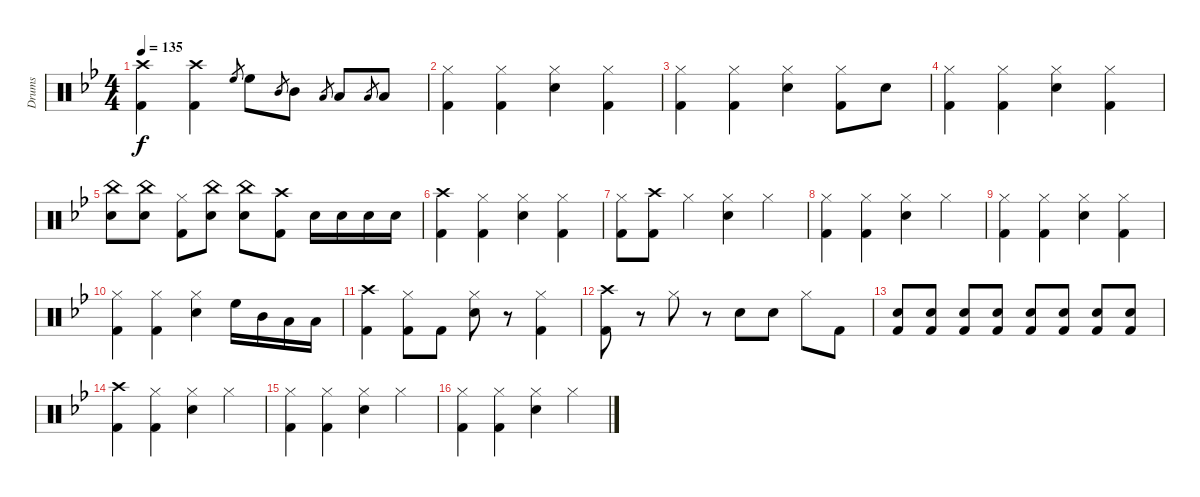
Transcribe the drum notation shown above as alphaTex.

\track ("Drums" "Drums") {instrument percussion}
\staff {score}
\articulation defaults
\ts (4 4)
\tempo 135
\clef neutral
\ks bb
("Crash high (hit)" "Kick (hit) 2").4{dy f} ("Crash high (hit)" "Kick (hit) 2").4 "High Floor Tom (hit)".8{gr} "High Floor Tom (hit)".8 "Mid Tom (hit)".8{gr} "Mid Tom (hit)".8 "Low Tom (hit)".8{gr} "Low Tom (hit)".8 "Low Floor Tom (hit)".8{gr} "Low Floor Tom (hit)".8 |
("Hi-Hat (closed)" "Kick (hit) 2").4 ("Hi-Hat (closed)" "Kick (hit) 2").4 ("Hi-Hat (closed)" "Snare (hit) 2").4 ("Hi-Hat (closed)" "Kick (hit) 2").4 |
("Hi-Hat (closed)" "Kick (hit) 2").4 ("Hi-Hat (closed)" "Kick (hit) 2").4 ("Hi-Hat (closed)" "Snare (hit) 2").4 ("Hi-Hat (closed)" "Kick (hit) 2").8 "Snare (hit) 2".8 |
("Hi-Hat (closed)" "Kick (hit) 2").4 ("Hi-Hat (closed)" "Kick (hit) 2").4 ("Hi-Hat (closed)" "Snare (hit) 2").4 ("Hi-Hat (closed)" "Kick (hit) 2").4 |
("China (hit)" "Snare (hit) 2").8 ("China (hit)" "Snare (hit) 2").8 ("Hi-Hat (closed)" "Kick (hit) 2").8 ("China (hit)" "Snare (hit) 2").8 ("China (hit)" "Snare (hit) 2").8 ("Crash high (hit)" "Kick (hit) 2").8 "Snare (hit) 2".16 "Snare (hit) 2".16 "Snare (hit) 2".16 "Snare (hit) 2".16 |
("Crash high (hit)" "Kick (hit) 2").4 ("Hi-Hat (closed)" "Kick (hit) 2").4 ("Hi-Hat (closed)" "Snare (hit) 2").4 ("Hi-Hat (closed)" "Kick (hit) 2").4 |
("Hi-Hat (closed)" "Kick (hit) 2").8 ("Crash high (hit)" "Kick (hit) 2").8 "Hi-Hat (closed)".4 ("Hi-Hat (closed)" "Snare (hit) 2").4 "Hi-Hat (closed)".4 |
("Hi-Hat (closed)" "Kick (hit) 2").4 ("Hi-Hat (closed)" "Kick (hit) 2").4 ("Hi-Hat (closed)" "Snare (hit) 2").4 "Hi-Hat (closed)".4 |
("Hi-Hat (closed)" "Kick (hit) 2").4 ("Hi-Hat (closed)" "Kick (hit) 2").4 ("Hi-Hat (closed)" "Snare (hit) 2").4 ("Hi-Hat (closed)" "Kick (hit) 2").4 |
("Hi-Hat (closed)" "Kick (hit) 2").4 ("Hi-Hat (closed)" "Kick (hit) 2").4 ("Hi-Hat (closed)" "Snare (hit) 2").4 "High Floor Tom (hit)".16 "Mid Tom (hit)".16 "Low Tom (hit)".16 "Low Floor Tom (hit)".16 |
("Crash high (hit)" "Kick (hit) 2").4 ("Hi-Hat (closed)" "Kick (hit) 2").8 "Kick (hit) 2".8 ("Hi-Hat (closed)" "Snare (hit) 2").8 r.8 ("Hi-Hat (closed)" "Kick (hit) 2").4 |
("Crash high (hit)" "Kick (hit) 2").8 r.8 "Hi-Hat (closed)".8 r.8 "Snare (hit) 2".8 "Snare (hit) 2".8 "Hi-Hat (closed)".8 "Kick (hit) 2".8 |
("Snare (hit) 2" "Kick (hit) 2").8{volume 6} ("Snare (hit) 2" "Kick (hit) 2").8 ("Snare (hit) 2" "Kick (hit) 2").8{volume 8} ("Snare (hit) 2" "Kick (hit) 2").8 ("Snare (hit) 2" "Kick (hit) 2").8{volume 11} ("Snare (hit) 2" "Kick (hit) 2").8 ("Snare (hit) 2" "Kick (hit) 2").8{volume 13} ("Snare (hit) 2" "Kick (hit) 2").8 |
("Crash high (hit)" "Kick (hit) 2").4 ("Hi-Hat (closed)" "Kick (hit) 2").4 ("Hi-Hat (closed)" "Snare (hit) 2").4 "Hi-Hat (closed)".4 |
("Hi-Hat (closed)" "Kick (hit) 2").4 ("Hi-Hat (closed)" "Kick (hit) 2").4 ("Hi-Hat (closed)" "Snare (hit) 2").4 "Hi-Hat (closed)".4 |
("Hi-Hat (closed)" "Kick (hit) 2").4 ("Hi-Hat (closed)" "Kick (hit) 2").4 ("Hi-Hat (closed)" "Snare (hit) 2").4 "Hi-Hat (closed)".4
